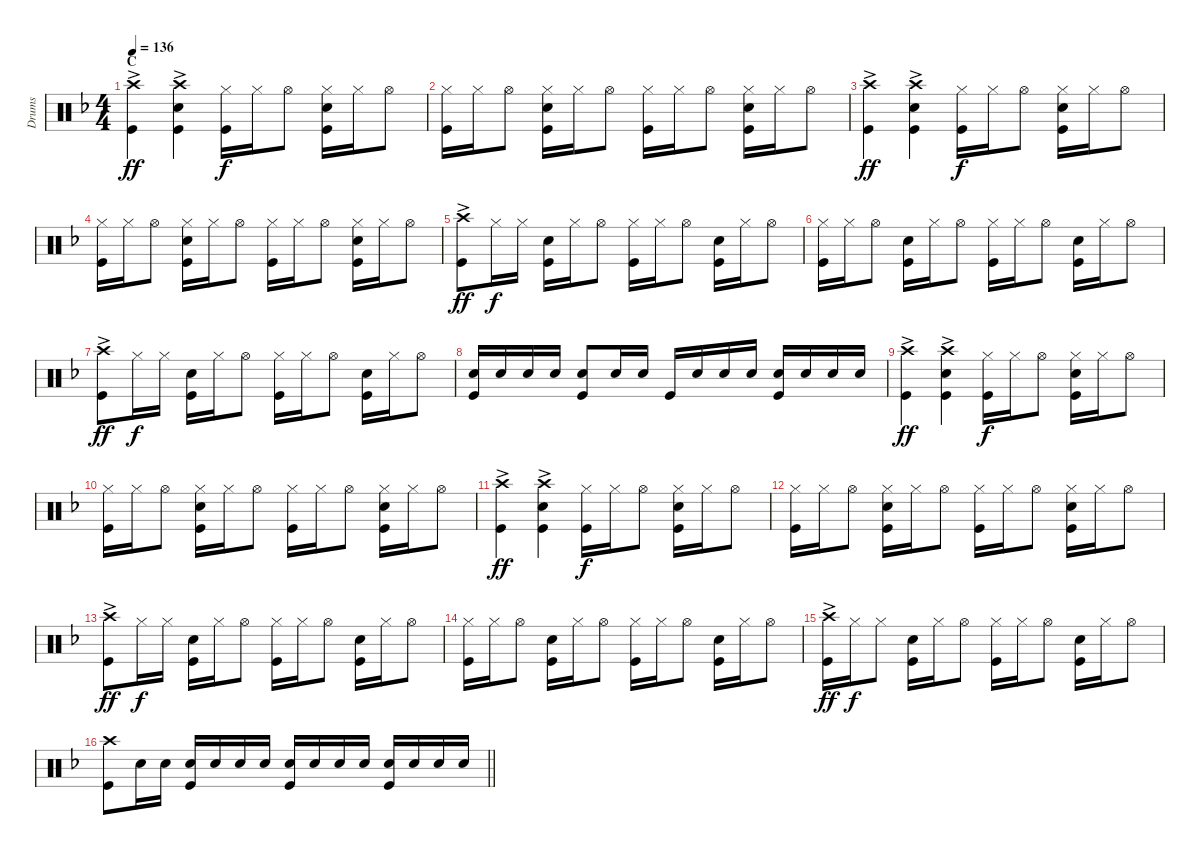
\track ("Drums" "Drums") {instrument percussion}
\staff {score}
\articulation defaults
\ts (4 4)
\section ("" "C")
\tempo 136
\clef neutral
\ks dminor
("Crash high (hit)" "Kick (hit)"{ac}).4{dy ff} ("Crash high (hit)" "Snare (hit) 2" "Kick (hit)"{ac}).4 ("Kick (hit)" "Hi-Hat (closed)").16{dy f} "Hi-Hat (closed)".16 "Hi-Hat (open)".8 ("Kick (hit)" "Hi-Hat (closed)" "Snare (hit) 2").16 "Hi-Hat (closed)".16 "Hi-Hat (open)".8 |
("Kick (hit)" "Hi-Hat (closed)").16 "Hi-Hat (closed)".16 "Hi-Hat (open)".8 ("Kick (hit)" "Hi-Hat (closed)" "Snare (hit) 2").16 "Hi-Hat (closed)".16 "Hi-Hat (open)".8 ("Kick (hit)" "Hi-Hat (closed)").16 "Hi-Hat (closed)".16 "Hi-Hat (open)".8 ("Kick (hit)" "Hi-Hat (closed)" "Snare (hit) 2").16 "Hi-Hat (closed)".16 "Hi-Hat (open)".8 |
("Crash high (hit)" "Kick (hit)"{ac}).4{dy ff} ("Crash high (hit)" "Snare (hit) 2" "Kick (hit)"{ac}).4 ("Kick (hit)" "Hi-Hat (closed)").16{dy f} "Hi-Hat (closed)".16 "Hi-Hat (open)".8 ("Kick (hit)" "Hi-Hat (closed)" "Snare (hit) 2").16 "Hi-Hat (closed)".16 "Hi-Hat (open)".8 |
("Kick (hit)" "Hi-Hat (closed)").16 "Hi-Hat (closed)".16 "Hi-Hat (open)".8 ("Kick (hit)" "Hi-Hat (closed)" "Snare (hit) 2").16 "Hi-Hat (closed)".16 "Hi-Hat (open)".8 ("Kick (hit)" "Hi-Hat (closed)").16 "Hi-Hat (closed)".16 "Hi-Hat (open)".8 ("Kick (hit)" "Hi-Hat (closed)" "Snare (hit) 2").16 "Hi-Hat (closed)".16 "Hi-Hat (open)".8 |
("Crash high (hit)"{ac} "Kick (hit)").8{dy ff} "Hi-Hat (closed)".16{dy f} "Hi-Hat (closed)".16 ("Snare (hit) 2" "Kick (hit)").16 "Hi-Hat (closed)".16 "Hi-Hat (open)".8 ("Hi-Hat (closed)" "Kick (hit)").16 "Hi-Hat (closed)".16 "Hi-Hat (open)".8 ("Kick (hit)" "Snare (hit) 2").16 "Hi-Hat (closed)".16 "Hi-Hat (open)".8 |
("Kick (hit)" "Hi-Hat (closed)").16 "Hi-Hat (closed)".16 "Hi-Hat (open)".8 ("Kick (hit)" "Snare (hit) 2").16 "Hi-Hat (closed)".16 "Hi-Hat (open)".8 ("Kick (hit)" "Hi-Hat (closed)").16 "Hi-Hat (closed)".16 "Hi-Hat (open)".8 ("Kick (hit)" "Snare (hit) 2").16 "Hi-Hat (closed)".16 "Hi-Hat (open)".8 |
("Crash high (hit)"{ac} "Kick (hit)").8{dy ff} "Hi-Hat (closed)".16{dy f} "Hi-Hat (closed)".16 ("Snare (hit) 2" "Kick (hit)").16 "Hi-Hat (closed)".16 "Hi-Hat (open)".8 ("Kick (hit)" "Hi-Hat (closed)").16 "Hi-Hat (closed)".16 "Hi-Hat (open)".8 ("Kick (hit)" "Snare (hit) 2").16 "Hi-Hat (closed)".16 "Hi-Hat (open)".8 |
("Snare (hit) 2" "Kick (hit)").16 "Snare (hit) 2".16 "Snare (hit) 2".16 "Snare (hit) 2".16 ("Kick (hit)" "Snare (hit) 2").8 "Snare (hit) 2".16 "Snare (hit) 2".16 "Kick (hit)".16 "Snare (hit) 2".16 "Snare (hit) 2".16 "Snare (hit) 2".16 ("Snare (hit) 2" "Kick (hit)").16 "Snare (hit) 2".16 "Snare (hit) 2".16 "Snare (hit) 2".16 |
("Crash high (hit)" "Kick (hit)"{ac}).4{dy ff} ("Crash high (hit)" "Snare (hit) 2" "Kick (hit)"{ac}).4 ("Kick (hit)" "Hi-Hat (closed)").16{dy f} "Hi-Hat (closed)".16 "Hi-Hat (open)".8 ("Kick (hit)" "Hi-Hat (closed)" "Snare (hit) 2").16 "Hi-Hat (closed)".16 "Hi-Hat (open)".8 |
("Kick (hit)" "Hi-Hat (closed)").16 "Hi-Hat (closed)".16 "Hi-Hat (open)".8 ("Kick (hit)" "Hi-Hat (closed)" "Snare (hit) 2").16 "Hi-Hat (closed)".16 "Hi-Hat (open)".8 ("Kick (hit)" "Hi-Hat (closed)").16 "Hi-Hat (closed)".16 "Hi-Hat (open)".8 ("Kick (hit)" "Hi-Hat (closed)" "Snare (hit) 2").16 "Hi-Hat (closed)".16 "Hi-Hat (open)".8 |
("Crash high (hit)" "Kick (hit)"{ac}).4{dy ff} ("Crash high (hit)" "Snare (hit) 2" "Kick (hit)"{ac}).4 ("Kick (hit)" "Hi-Hat (closed)").16{dy f} "Hi-Hat (closed)".16 "Hi-Hat (open)".8 ("Kick (hit)" "Hi-Hat (closed)" "Snare (hit) 2").16 "Hi-Hat (closed)".16 "Hi-Hat (open)".8 |
("Kick (hit)" "Hi-Hat (closed)").16 "Hi-Hat (closed)".16 "Hi-Hat (open)".8 ("Kick (hit)" "Hi-Hat (closed)" "Snare (hit) 2").16 "Hi-Hat (closed)".16 "Hi-Hat (open)".8 ("Kick (hit)" "Hi-Hat (closed)").16 "Hi-Hat (closed)".16 "Hi-Hat (open)".8 ("Kick (hit)" "Hi-Hat (closed)" "Snare (hit) 2").16 "Hi-Hat (closed)".16 "Hi-Hat (open)".8 |
("Crash high (hit)"{ac} "Kick (hit)").8{dy ff} "Hi-Hat (closed)".16{dy f} "Hi-Hat (closed)".16 ("Snare (hit) 2" "Kick (hit)").16 "Hi-Hat (closed)".16 "Hi-Hat (open)".8 ("Hi-Hat (closed)" "Kick (hit)").16 "Hi-Hat (closed)".16 "Hi-Hat (open)".8 ("Kick (hit)" "Snare (hit) 2").16 "Hi-Hat (closed)".16 "Hi-Hat (open)".8 |
("Kick (hit)" "Hi-Hat (closed)").16 "Hi-Hat (closed)".16 "Hi-Hat (open)".8 ("Kick (hit)" "Snare (hit) 2").16 "Hi-Hat (closed)".16 "Hi-Hat (open)".8 ("Kick (hit)" "Hi-Hat (closed)").16 "Hi-Hat (closed)".16 "Hi-Hat (open)".8 ("Kick (hit)" "Snare (hit) 2").16 "Hi-Hat (closed)".16 "Hi-Hat (open)".8 |
("Crash high (hit)"{ac} "Kick (hit)").16{dy ff} "Hi-Hat (closed)".16{dy f} "Hi-Hat (closed)".8 ("Snare (hit) 2" "Kick (hit)").16 "Hi-Hat (closed)".16 "Hi-Hat (open)".8 ("Hi-Hat (closed)" "Kick (hit)").16 "Hi-Hat (closed)".16 "Hi-Hat (open)".8 ("Snare (hit) 2" "Kick (hit)").16 "Hi-Hat (closed)".16 "Hi-Hat (open)".8 |
\barLineRight lightlight
("Crash high (hit)" "Kick (hit)").8 "Snare (hit) 2".16 "Snare (hit) 2".16 ("Snare (hit) 2" "Kick (hit)").16 "Snare (hit) 2".16 "Snare (hit) 2".16 "Snare (hit) 2".16 ("Snare (hit) 2" "Kick (hit)").16 "Snare (hit) 2".16 "Snare (hit) 2".16 "Snare (hit) 2".16 ("Snare (hit) 2" "Kick (hit)").16 "Snare (hit) 2".16 "Snare (hit) 2".16 "Snare (hit) 2".16
